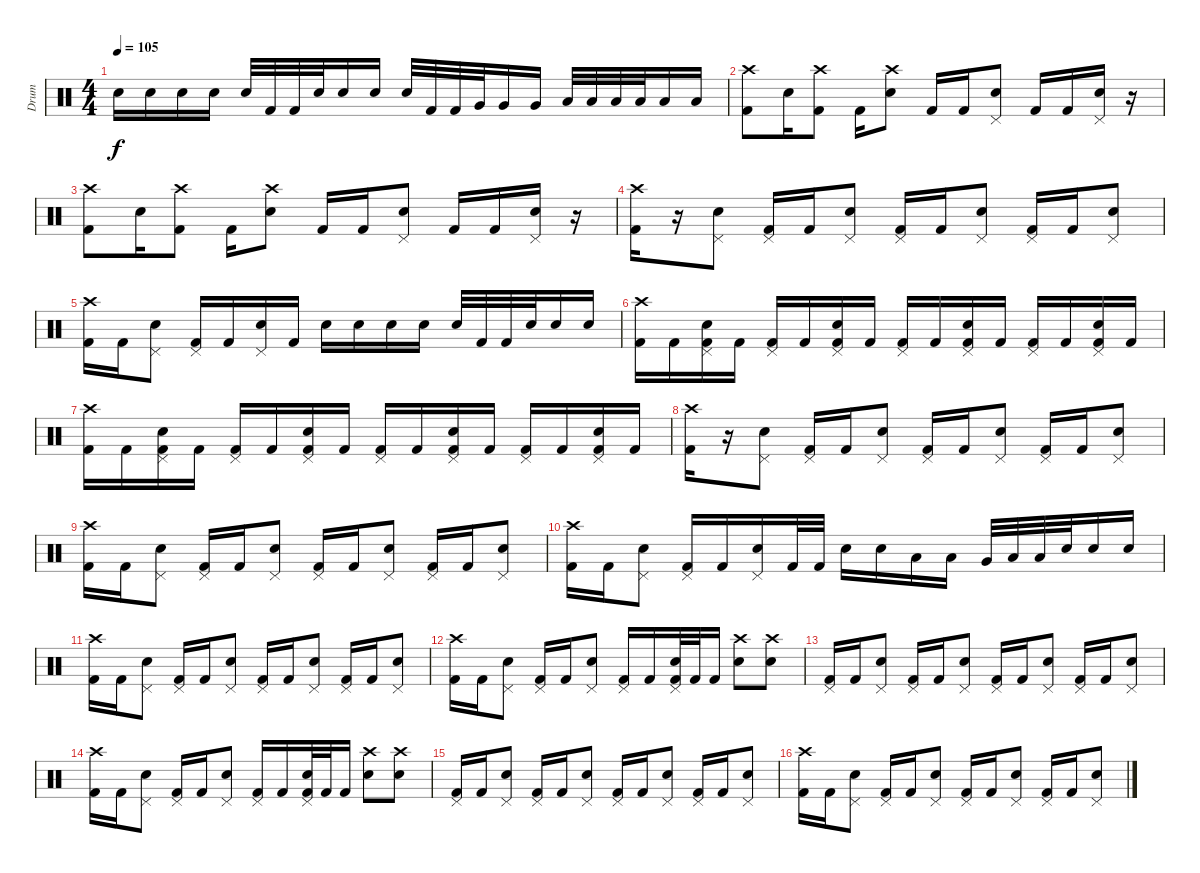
\track ("Drum" "Drum") {instrument percussion}
\staff {score}
\articulation defaults
\ts (4 4)
\tempo 105
\clef neutral
\ks c "Snare (hit) 2".16{dy f} "Snare (hit) 2".16 "Snare (hit) 2".16 "Snare (hit) 2".16 "Snare (hit) 2".32 "Kick (hit) 2".32 "Kick (hit) 2".32 "Snare (hit) 2".32 "Snare (hit) 2".16 "Snare (hit) 2".16 "Snare (hit) 2".32 "Kick (hit) 2".32 "Kick (hit) 2".32 "Very Low Tom (hit)".32 "Very Low Tom (hit)".16 "Very Low Tom (hit)".16 "Low Tom (hit)".32 "Low Floor Tom (hit)".32 "Low Floor Tom (hit)".32 "Low Floor Tom (hit)".32 "Low Floor Tom (hit)".16 "Low Floor Tom (hit)".16
|
("Crash high (hit)" "Kick (hit) 2").8 "Snare (hit) 2".16 ("Crash high (hit)" "Kick (hit) 2").8 "Kick (hit) 2".16 ("Crash high (hit)" "Snare (hit) 2").8 "Kick (hit) 2".16 "Kick (hit) 2".16 ("Pedal Hi-Hat (hit)" "Snare (hit) 2").8 "Kick (hit) 2".16 "Kick (hit) 2".16 ("Pedal Hi-Hat (hit)" "Snare (hit) 2").16 r.16 |
("Crash high (hit)" "Kick (hit) 2").8 "Snare (hit) 2".16 ("Crash high (hit)" "Kick (hit) 2").8 "Kick (hit) 2".16 ("Crash high (hit)" "Snare (hit) 2").8 "Kick (hit) 2".16 "Kick (hit) 2".16 ("Pedal Hi-Hat (hit)" "Snare (hit) 2").8 "Kick (hit) 2".16 "Kick (hit) 2".16 ("Pedal Hi-Hat (hit)" "Snare (hit) 2").16 r.16 |
("Crash high (hit)" "Kick (hit) 2").16 r.16 ("Pedal Hi-Hat (hit)" "Snare (hit) 2").8 ("Pedal Hi-Hat (hit)" "Kick (hit) 2").16 "Kick (hit) 2".16 ("Pedal Hi-Hat (hit)" "Snare (hit) 2").8 ("Pedal Hi-Hat (hit)" "Kick (hit) 2").16 "Kick (hit) 2".16 ("Pedal Hi-Hat (hit)" "Snare (hit) 2").8 ("Pedal Hi-Hat (hit)" "Kick (hit) 2").16 "Kick (hit) 2".16 ("Pedal Hi-Hat (hit)" "Snare (hit) 2").8 |
("Crash high (hit)" "Kick (hit) 2").16 "Kick (hit) 2".16 ("Pedal Hi-Hat (hit)" "Snare (hit) 2").8 ("Pedal Hi-Hat (hit)" "Kick (hit) 2").16 "Kick (hit) 2".16 ("Pedal Hi-Hat (hit)" "Snare (hit) 2").16 "Kick (hit) 2".16 "Snare (hit) 2".16 "Snare (hit) 2".16 "Snare (hit) 2".16 "Snare (hit) 2".16 "Snare (hit) 2".32 "Kick (hit) 2".32 "Kick (hit) 2".32 "Snare (hit) 2".32 "Snare (hit) 2".16 "Snare (hit) 2".16 |
("Crash high (hit)" "Kick (hit) 2").16 "Kick (hit) 2".16 ("Pedal Hi-Hat (hit)" "Snare (hit) 2" "Kick (hit) 2").16 "Kick (hit) 2".16 ("Pedal Hi-Hat (hit)" "Kick (hit) 2").16 "Kick (hit) 2".16 ("Pedal Hi-Hat (hit)" "Snare (hit) 2" "Kick (hit) 2").16 "Kick (hit) 2".16 ("Pedal Hi-Hat (hit)" "Kick (hit) 2").16 "Kick (hit) 2".16 ("Pedal Hi-Hat (hit)" "Snare (hit) 2" "Kick (hit) 2").16 "Kick (hit) 2".16 ("Pedal Hi-Hat (hit)" "Kick (hit) 2").16 "Kick (hit) 2".16 ("Pedal Hi-Hat (hit)" "Snare (hit) 2" "Kick (hit) 2").16 "Kick (hit) 2".16 |
("Crash high (hit)" "Kick (hit) 2").16 "Kick (hit) 2".16 ("Pedal Hi-Hat (hit)" "Snare (hit) 2" "Kick (hit) 2").16 "Kick (hit) 2".16 ("Pedal Hi-Hat (hit)" "Kick (hit) 2").16 "Kick (hit) 2".16 ("Pedal Hi-Hat (hit)" "Snare (hit) 2" "Kick (hit) 2").16 "Kick (hit) 2".16 ("Pedal Hi-Hat (hit)" "Kick (hit) 2").16 "Kick (hit) 2".16 ("Pedal Hi-Hat (hit)" "Snare (hit) 2" "Kick (hit) 2").16 "Kick (hit) 2".16 ("Pedal Hi-Hat (hit)" "Kick (hit) 2").16 "Kick (hit) 2".16 ("Pedal Hi-Hat (hit)" "Snare (hit) 2" "Kick (hit) 2").16 "Kick (hit) 2".16 |
("Crash high (hit)" "Kick (hit) 2").16 r.16 ("Pedal Hi-Hat (hit)" "Snare (hit) 2").8 ("Pedal Hi-Hat (hit)" "Kick (hit) 2").16 "Kick (hit) 2".16 ("Pedal Hi-Hat (hit)" "Snare (hit) 2").8 ("Pedal Hi-Hat (hit)" "Kick (hit) 2").16 "Kick (hit) 2".16 ("Pedal Hi-Hat (hit)" "Snare (hit) 2").8 ("Pedal Hi-Hat (hit)" "Kick (hit) 2").16 "Kick (hit) 2".16 ("Pedal Hi-Hat (hit)" "Snare (hit) 2").8 |
("Crash high (hit)" "Kick (hit) 2").16 "Kick (hit) 2".16 ("Pedal Hi-Hat (hit)" "Snare (hit) 2").8 ("Pedal Hi-Hat (hit)" "Kick (hit) 2").16 "Kick (hit) 2".16 ("Pedal Hi-Hat (hit)" "Snare (hit) 2").8 ("Pedal Hi-Hat (hit)" "Kick (hit) 2").16 "Kick (hit) 2".16 ("Pedal Hi-Hat (hit)" "Snare (hit) 2").8 ("Pedal Hi-Hat (hit)" "Kick (hit) 2").16 "Kick (hit) 2".16 ("Pedal Hi-Hat (hit)" "Snare (hit) 2").8 |
("Crash high (hit)" "Kick (hit) 2").16 "Kick (hit) 2".16 ("Pedal Hi-Hat (hit)" "Snare (hit) 2").8 ("Pedal Hi-Hat (hit)" "Kick (hit) 2").16 "Kick (hit) 2".16 ("Pedal Hi-Hat (hit)" "Snare (hit) 2").16 "Kick (hit) 2".32 "Kick (hit) 2".32 "Snare (hit) 2".16 "Snare (hit) 2".16 "Low Tom (hit)".16 "Low Tom (hit)".16 "Very Low Tom (hit)".32 "Low Floor Tom (hit)".32 "Low Floor Tom (hit)".32 "Snare (hit) 2".32 "Electric Snare (hit)".16 "Electric Snare (hit)".16 |
("Crash high (hit)" "Kick (hit) 2").16 "Kick (hit) 2".16 ("Pedal Hi-Hat (hit)" "Snare (hit) 2").8 ("Pedal Hi-Hat (hit)" "Kick (hit) 2").16 "Kick (hit) 2".16 ("Pedal Hi-Hat (hit)" "Snare (hit) 2").8 ("Pedal Hi-Hat (hit)" "Kick (hit) 2").16 "Kick (hit) 2".16 ("Pedal Hi-Hat (hit)" "Snare (hit) 2").8 ("Pedal Hi-Hat (hit)" "Kick (hit) 2").16 "Kick (hit) 2".16 ("Pedal Hi-Hat (hit)" "Snare (hit) 2").8 |
("Crash high (hit)" "Kick (hit) 2").16 "Kick (hit) 2".16 ("Pedal Hi-Hat (hit)" "Snare (hit) 2").8 ("Pedal Hi-Hat (hit)" "Kick (hit) 2").16 "Kick (hit) 2".16 ("Pedal Hi-Hat (hit)" "Snare (hit) 2").8 ("Pedal Hi-Hat (hit)" "Kick (hit) 2").16 "Kick (hit) 2".16 ("Pedal Hi-Hat (hit)" "Snare (hit) 2" "Kick (hit) 2").32 "Kick (hit) 2".32 "Kick (hit) 2".16 ("Crash high (hit)" "Snare (hit) 2").8 ("Crash high (hit)" "Snare (hit) 2").8 |
("Pedal Hi-Hat (hit)" "Kick (hit) 2").16 "Kick (hit) 2".16 ("Pedal Hi-Hat (hit)" "Snare (hit) 2").8 ("Pedal Hi-Hat (hit)" "Kick (hit) 2").16 "Kick (hit) 2".16 ("Pedal Hi-Hat (hit)" "Snare (hit) 2").8 ("Pedal Hi-Hat (hit)" "Kick (hit) 2").16 "Kick (hit) 2".16 ("Pedal Hi-Hat (hit)" "Snare (hit) 2").8 ("Pedal Hi-Hat (hit)" "Kick (hit) 2").16 "Kick (hit) 2".16 ("Pedal Hi-Hat (hit)" "Snare (hit) 2").8 |
("Crash high (hit)" "Kick (hit) 2").16 "Kick (hit) 2".16 ("Pedal Hi-Hat (hit)" "Snare (hit) 2").8 ("Pedal Hi-Hat (hit)" "Kick (hit) 2").16 "Kick (hit) 2".16 ("Pedal Hi-Hat (hit)" "Snare (hit) 2").8 ("Pedal Hi-Hat (hit)" "Kick (hit) 2").16 "Kick (hit) 2".16 ("Pedal Hi-Hat (hit)" "Snare (hit) 2" "Kick (hit) 2").32 "Kick (hit) 2".32 "Kick (hit) 2".16 ("Crash high (hit)" "Snare (hit) 2").8 ("Crash high (hit)" "Snare (hit) 2").8 |
("Pedal Hi-Hat (hit)" "Kick (hit) 2").16 "Kick (hit) 2".16 ("Pedal Hi-Hat (hit)" "Snare (hit) 2").8 ("Pedal Hi-Hat (hit)" "Kick (hit) 2").16 "Kick (hit) 2".16 ("Pedal Hi-Hat (hit)" "Snare (hit) 2").8 ("Pedal Hi-Hat (hit)" "Kick (hit) 2").16 "Kick (hit) 2".16 ("Pedal Hi-Hat (hit)" "Snare (hit) 2").8 ("Pedal Hi-Hat (hit)" "Kick (hit) 2").16 "Kick (hit) 2".16 ("Pedal Hi-Hat (hit)" "Snare (hit) 2").8 |
("Crash high (hit)" "Kick (hit) 2").16 "Kick (hit) 2".16 ("Pedal Hi-Hat (hit)" "Snare (hit) 2").8 ("Pedal Hi-Hat (hit)" "Kick (hit) 2").16 "Kick (hit) 2".16 ("Pedal Hi-Hat (hit)" "Snare (hit) 2").8 ("Pedal Hi-Hat (hit)" "Kick (hit) 2").16 "Kick (hit) 2".16 ("Pedal Hi-Hat (hit)" "Snare (hit) 2").8 ("Pedal Hi-Hat (hit)" "Kick (hit) 2").16 "Kick (hit) 2".16 ("Pedal Hi-Hat (hit)" "Snare (hit) 2").8
